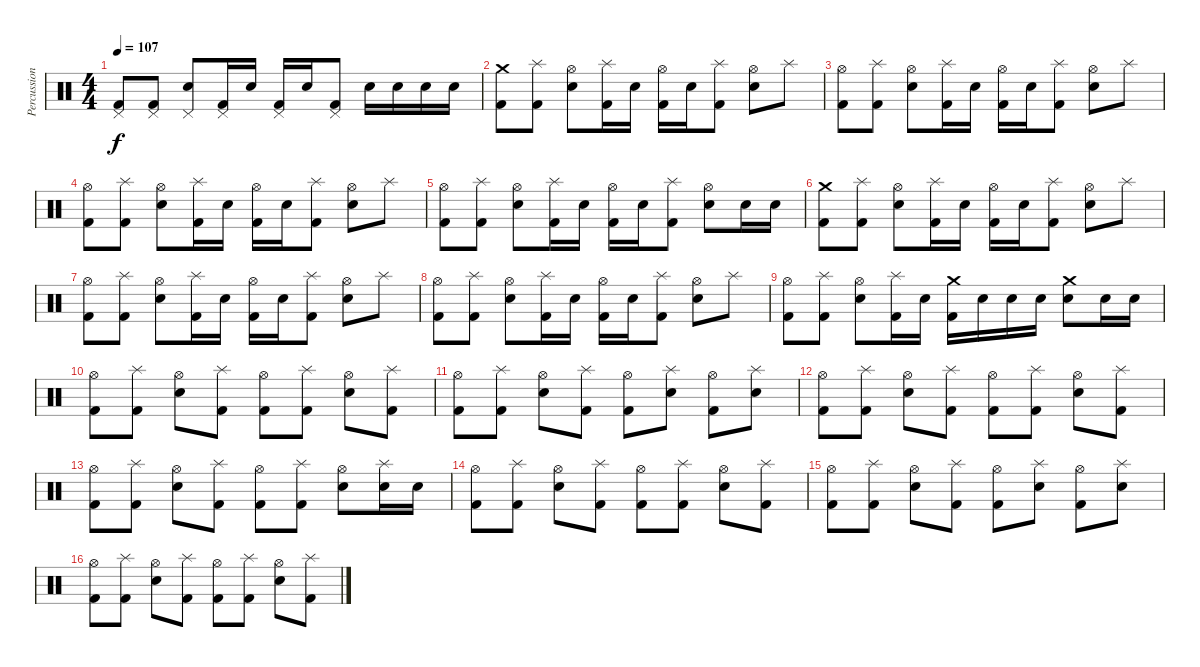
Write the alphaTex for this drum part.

\track ("Percussions" "Percussion") {instrument percussion}
\staff {score}
\articulation defaults
\ts (4 4)
\tempo 107
\clef neutral
\ks c
("Pedal Hi-Hat (hit)" "Kick (hit) 2").8{dy f} ("Pedal Hi-Hat (hit)" "Kick (hit) 2").8 ("Pedal Hi-Hat (hit)" "Electric Snare (hit)").8 ("Pedal Hi-Hat (hit)" "Kick (hit) 2").16 "Snare (hit) 2".16 ("Pedal Hi-Hat (hit)" "Kick (hit) 2").16 "Snare (hit) 2".16 ("Pedal Hi-Hat (hit)" "Kick (hit) 2").8 "Snare (hit) 2".16 "Snare (hit) 2".16 "Snare (hit) 2".16 "Snare (hit) 2".16 |
("Crash medium (hit)" "Kick (hit) 2").8{volume 13} ("Splash (hit)" "Kick (hit) 2").8 ("Hi-Hat (open)" "Electric Snare (hit)").8 ("Splash (hit)" "Kick (hit) 2").16 "Snare (hit) 2".16 ("Hi-Hat (open)" "Kick (hit) 2").16 "Snare (hit) 2".16 ("Splash (hit)" "Kick (hit) 2").8 ("Hi-Hat (open)" "Snare (hit) 2").8 "Splash (hit)".8 |
("Hi-Hat (open)" "Kick (hit) 2").8 ("Splash (hit)" "Kick (hit) 2").8 ("Hi-Hat (open)" "Electric Snare (hit)").8 ("Splash (hit)" "Kick (hit) 2").16 "Snare (hit) 2".16 ("Hi-Hat (open)" "Kick (hit) 2").16 "Snare (hit) 2".16 ("Splash (hit)" "Kick (hit) 2").8 ("Hi-Hat (open)" "Snare (hit) 2").8 "Splash (hit)".8 |
("Hi-Hat (open)" "Kick (hit) 2").8 ("Splash (hit)" "Kick (hit) 2").8 ("Hi-Hat (open)" "Electric Snare (hit)").8 ("Splash (hit)" "Kick (hit) 2").16 "Snare (hit) 2".16 ("Hi-Hat (open)" "Kick (hit) 2").16 "Snare (hit) 2".16 ("Splash (hit)" "Kick (hit) 2").8 ("Hi-Hat (open)" "Snare (hit) 2").8 "Splash (hit)".8 |
("Hi-Hat (open)" "Kick (hit) 2").8 ("Splash (hit)" "Kick (hit) 2").8 ("Hi-Hat (open)" "Electric Snare (hit)").8 ("Splash (hit)" "Kick (hit) 2").16 "Snare (hit) 2".16 ("Hi-Hat (open)" "Kick (hit) 2").16 "Snare (hit) 2".16 ("Splash (hit)" "Kick (hit) 2").8 ("Hi-Hat (open)" "Snare (hit) 2").8 "Snare (hit) 2".16 "Snare (hit) 2".16 |
("Crash medium (hit)" "Kick (hit) 2").8{volume 13} ("Splash (hit)" "Kick (hit) 2").8 ("Hi-Hat (open)" "Electric Snare (hit)").8 ("Splash (hit)" "Kick (hit) 2").16 "Snare (hit) 2".16 ("Hi-Hat (open)" "Kick (hit) 2").16 "Snare (hit) 2".16 ("Splash (hit)" "Kick (hit) 2").8 ("Hi-Hat (open)" "Snare (hit) 2").8 "Splash (hit)".8 |
("Hi-Hat (open)" "Kick (hit) 2").8 ("Splash (hit)" "Kick (hit) 2").8 ("Hi-Hat (open)" "Electric Snare (hit)").8 ("Splash (hit)" "Kick (hit) 2").16 "Snare (hit) 2".16 ("Hi-Hat (open)" "Kick (hit) 2").16 "Snare (hit) 2".16 ("Splash (hit)" "Kick (hit) 2").8 ("Hi-Hat (open)" "Snare (hit) 2").8 "Splash (hit)".8 |
("Hi-Hat (open)" "Kick (hit) 2").8 ("Splash (hit)" "Kick (hit) 2").8 ("Hi-Hat (open)" "Electric Snare (hit)").8 ("Splash (hit)" "Kick (hit) 2").16 "Snare (hit) 2".16 ("Hi-Hat (open)" "Kick (hit) 2").16 "Snare (hit) 2".16 ("Splash (hit)" "Kick (hit) 2").8 ("Hi-Hat (open)" "Snare (hit) 2").8 "Splash (hit)".8 |
("Hi-Hat (open)" "Kick (hit) 2").8 ("Splash (hit)" "Kick (hit) 2").8 ("Hi-Hat (open)" "Electric Snare (hit)").8 ("Splash (hit)" "Kick (hit) 2").16 "Snare (hit) 2".16 ("Crash medium (hit)" "Kick (hit) 2").16 "Snare (hit) 2".16 "Snare (hit) 2".16 "Snare (hit) 2".16 ("Crash medium (hit)" "Snare (hit) 2").8 "Snare (hit) 2".16 "Snare (hit) 2".16 |
("Hi-Hat (open)" "Kick (hit) 2").8 ("Splash (hit)" "Kick (hit) 2").8 ("Hi-Hat (open)" "Snare (hit) 2").8 ("Splash (hit)" "Kick (hit) 2").8 ("Hi-Hat (open)" "Kick (hit) 2").8 ("Splash (hit)" "Kick (hit) 2").8 ("Hi-Hat (open)" "Snare (hit) 2").8 ("Splash (hit)" "Kick (hit) 2").8 |
("Hi-Hat (open)" "Kick (hit) 2").8 ("Splash (hit)" "Kick (hit) 2").8 ("Hi-Hat (open)" "Snare (hit) 2").8 ("Splash (hit)" "Kick (hit) 2").8 ("Hi-Hat (open)" "Kick (hit) 2").8 ("Splash (hit)" "Snare (hit) 2").8 ("Hi-Hat (open)" "Kick (hit) 2").8 ("Splash (hit)" "Snare (hit) 2").8 |
("Hi-Hat (open)" "Kick (hit) 2").8 ("Splash (hit)" "Kick (hit) 2").8 ("Hi-Hat (open)" "Snare (hit) 2").8 ("Splash (hit)" "Kick (hit) 2").8 ("Hi-Hat (open)" "Kick (hit) 2").8 ("Splash (hit)" "Kick (hit) 2").8 ("Hi-Hat (open)" "Snare (hit) 2").8 ("Splash (hit)" "Kick (hit) 2").8 |
("Hi-Hat (open)" "Kick (hit) 2").8 ("Splash (hit)" "Kick (hit) 2").8 ("Hi-Hat (open)" "Snare (hit) 2").8 ("Splash (hit)" "Kick (hit) 2").8 ("Hi-Hat (open)" "Kick (hit) 2").8 ("Splash (hit)" "Kick (hit) 2").8 ("Hi-Hat (open)" "Snare (hit) 2").8 ("Splash (hit)" "Snare (hit) 2").16 "Snare (hit) 2".16 |
("Hi-Hat (open)" "Kick (hit) 2").8 ("Splash (hit)" "Kick (hit) 2").8 ("Hi-Hat (open)" "Snare (hit) 2").8 ("Splash (hit)" "Kick (hit) 2").8 ("Hi-Hat (open)" "Kick (hit) 2").8 ("Splash (hit)" "Kick (hit) 2").8 ("Hi-Hat (open)" "Snare (hit) 2").8 ("Splash (hit)" "Kick (hit) 2").8 |
("Hi-Hat (open)" "Kick (hit) 2").8 ("Splash (hit)" "Kick (hit) 2").8 ("Hi-Hat (open)" "Snare (hit) 2").8 ("Splash (hit)" "Kick (hit) 2").8 ("Hi-Hat (open)" "Kick (hit) 2").8 ("Splash (hit)" "Snare (hit) 2").8 ("Hi-Hat (open)" "Kick (hit) 2").8 ("Splash (hit)" "Snare (hit) 2").8 |
("Hi-Hat (open)" "Kick (hit) 2").8 ("Splash (hit)" "Kick (hit) 2").8 ("Hi-Hat (open)" "Snare (hit) 2").8 ("Splash (hit)" "Kick (hit) 2").8 ("Hi-Hat (open)" "Kick (hit) 2").8 ("Splash (hit)" "Kick (hit) 2").8 ("Hi-Hat (open)" "Snare (hit) 2").8 ("Splash (hit)" "Kick (hit) 2").8
